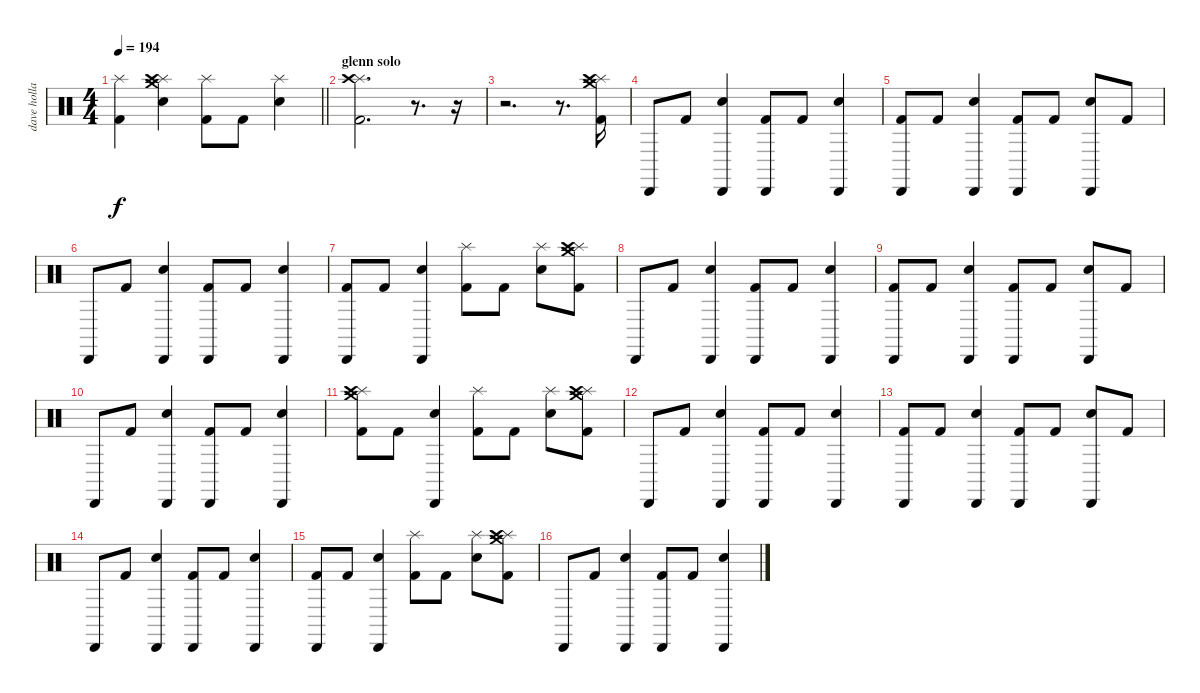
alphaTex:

\track ("dave holland" "dave holla") {instrument percussion}
\staff {score}
\articulation defaults
\ts (4 4)
\tempo 194
\clef neutral
\barLineRight lightlight
\ks c
("Splash (hit)" "Kick (hit) 2").4{dy f} ("Crash medium (hit)" "Splash (hit)" "Crash high (hit)" "Electric Snare (hit)").4 ("Splash (hit)" "Kick (hit) 2").8 "Kick (hit) 2".8 ("Splash (hit)" "Electric Snare (hit)").4 |
\section ("" "glenn solo")
("Splash (hit)" "Crash high (hit)" "Kick (hit) 2").2{d} r.8{d} r.16 |
r.2{d} r.8{d} ("Crash medium (hit)" "Splash (hit)" "Crash high (hit)" "Kick (hit) 2").16 |
"Cabasa (hit)".8 "Kick (hit) 2".8 ("Cabasa (hit)" "Electric Snare (hit)").4 ("Cabasa (hit)" "Kick (hit) 2").8 "Kick (hit) 2".8 ("Cabasa (hit)" "Electric Snare (hit)").4 |
("Cabasa (hit)" "Kick (hit) 2").8 "Kick (hit) 2".8 ("Cabasa (hit)" "Electric Snare (hit)").4 ("Cabasa (hit)" "Kick (hit) 2").8 "Kick (hit) 2".8 ("Cabasa (hit)" "Electric Snare (hit)").8 "Kick (hit) 2".8 |
"Cabasa (hit)".8 "Kick (hit) 2".8 ("Cabasa (hit)" "Electric Snare (hit)").4 ("Cabasa (hit)" "Kick (hit) 2").8 "Kick (hit) 2".8 ("Cabasa (hit)" "Electric Snare (hit)").4 |
("Cabasa (hit)" "Kick (hit) 2").8 "Kick (hit) 2".8 ("Cabasa (hit)" "Electric Snare (hit)").4 ("Splash (hit)" "Kick (hit) 2").8 "Kick (hit) 2".8 ("Splash (hit)" "Electric Snare (hit)").8 ("Crash medium (hit)" "Splash (hit)" "Crash high (hit)" "Kick (hit) 2").8 |
"Cabasa (hit)".8 "Kick (hit) 2".8 ("Cabasa (hit)" "Electric Snare (hit)").4 ("Cabasa (hit)" "Kick (hit) 2").8 "Kick (hit) 2".8 ("Cabasa (hit)" "Electric Snare (hit)").4 |
("Cabasa (hit)" "Kick (hit) 2").8 "Kick (hit) 2".8 ("Cabasa (hit)" "Electric Snare (hit)").4 ("Cabasa (hit)" "Kick (hit) 2").8 "Kick (hit) 2".8 ("Cabasa (hit)" "Electric Snare (hit)").8 "Kick (hit) 2".8 |
"Cabasa (hit)".8 "Kick (hit) 2".8 ("Cabasa (hit)" "Electric Snare (hit)").4 ("Cabasa (hit)" "Kick (hit) 2").8 "Kick (hit) 2".8 ("Cabasa (hit)" "Electric Snare (hit)").4 |
("Crash medium (hit)" "Splash (hit)" "Crash high (hit)" "Kick (hit) 2").8 "Kick (hit) 2".8 ("Cabasa (hit)" "Electric Snare (hit)").4 ("Splash (hit)" "Kick (hit) 2").8 "Kick (hit) 2".8 ("Splash (hit)" "Electric Snare (hit)").8 ("Crash medium (hit)" "Splash (hit)" "Crash high (hit)" "Kick (hit) 2").8 |
"Cabasa (hit)".8 "Kick (hit) 2".8 ("Cabasa (hit)" "Electric Snare (hit)").4 ("Cabasa (hit)" "Kick (hit) 2").8 "Kick (hit) 2".8 ("Cabasa (hit)" "Electric Snare (hit)").4 |
("Cabasa (hit)" "Kick (hit) 2").8 "Kick (hit) 2".8 ("Cabasa (hit)" "Electric Snare (hit)").4 ("Cabasa (hit)" "Kick (hit) 2").8 "Kick (hit) 2".8 ("Cabasa (hit)" "Electric Snare (hit)").8 "Kick (hit) 2".8 |
"Cabasa (hit)".8 "Kick (hit) 2".8 ("Cabasa (hit)" "Electric Snare (hit)").4 ("Cabasa (hit)" "Kick (hit) 2").8 "Kick (hit) 2".8 ("Cabasa (hit)" "Electric Snare (hit)").4 |
("Cabasa (hit)" "Kick (hit) 2").8 "Kick (hit) 2".8 ("Cabasa (hit)" "Electric Snare (hit)").4 ("Splash (hit)" "Kick (hit) 2").8 "Kick (hit) 2".8 ("Splash (hit)" "Electric Snare (hit)").8 ("Crash medium (hit)" "Splash (hit)" "Crash high (hit)" "Kick (hit) 2").8 |
"Cabasa (hit)".8 "Kick (hit) 2".8 ("Cabasa (hit)" "Electric Snare (hit)").4 ("Cabasa (hit)" "Kick (hit) 2").8 "Kick (hit) 2".8 ("Cabasa (hit)" "Electric Snare (hit)").4
